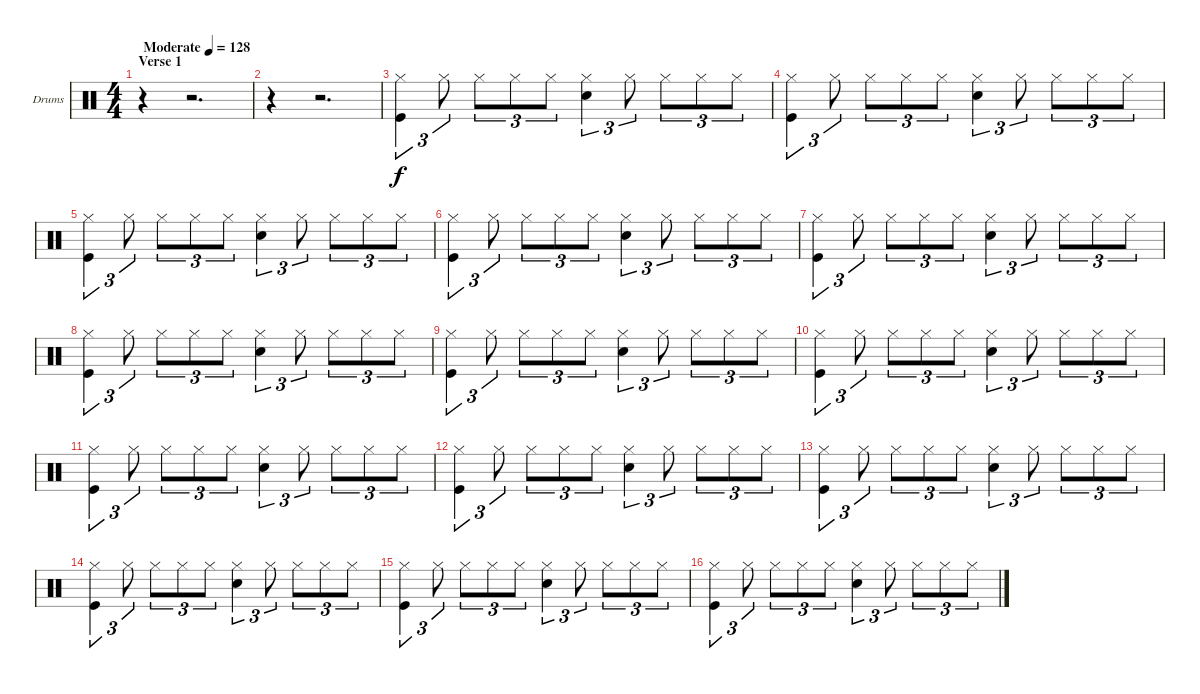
\bracketExtendMode groupsimilarinstruments
\firstSystemTrackNameOrientation horizontal
\otherSystemsTrackNameOrientation horizontal
\track ("Drumkit" "Drums") {instrument percussion}
\staff {score}
\articulation defaults
\ts (4 4)
\beaming (8 2 2 2 2)
\section ("" "Verse 1")
\tempo (128 "Moderate")
\clef neutral
\ks c
r.4{dy f} r.2{d} |
r.4 r.2{d} |
("Hi-Hat (closed)" "Kick (hit)").4{tu (3 2)} "Hi-Hat (closed)".8{tu (3 2)} "Hi-Hat (closed)".8{tu (3 2)} "Hi-Hat (closed)".8{tu (3 2)} "Hi-Hat (closed)".8{tu (3 2)} ("Hi-Hat (closed)" "Snare (hit) 2").4{tu (3 2)} "Hi-Hat (closed)".8{tu (3 2)} "Hi-Hat (closed)".8{tu (3 2)} "Hi-Hat (closed)".8{tu (3 2)} "Hi-Hat (closed)".8{tu (3 2)} |
("Hi-Hat (closed)" "Kick (hit)").4{tu (3 2)} "Hi-Hat (closed)".8{tu (3 2)} "Hi-Hat (closed)".8{tu (3 2)} "Hi-Hat (closed)".8{tu (3 2)} "Hi-Hat (closed)".8{tu (3 2)} ("Hi-Hat (closed)" "Snare (hit) 2").4{tu (3 2)} "Hi-Hat (closed)".8{tu (3 2)} "Hi-Hat (closed)".8{tu (3 2)} "Hi-Hat (closed)".8{tu (3 2)} "Hi-Hat (closed)".8{tu (3 2)} |
("Hi-Hat (closed)" "Kick (hit)").4{tu (3 2)} "Hi-Hat (closed)".8{tu (3 2)} "Hi-Hat (closed)".8{tu (3 2)} "Hi-Hat (closed)".8{tu (3 2)} "Hi-Hat (closed)".8{tu (3 2)} ("Hi-Hat (closed)" "Snare (hit) 2").4{tu (3 2)} "Hi-Hat (closed)".8{tu (3 2)} "Hi-Hat (closed)".8{tu (3 2)} "Hi-Hat (closed)".8{tu (3 2)} "Hi-Hat (closed)".8{tu (3 2)} |
("Hi-Hat (closed)" "Kick (hit)").4{tu (3 2)} "Hi-Hat (closed)".8{tu (3 2)} "Hi-Hat (closed)".8{tu (3 2)} "Hi-Hat (closed)".8{tu (3 2)} "Hi-Hat (closed)".8{tu (3 2)} ("Hi-Hat (closed)" "Snare (hit) 2").4{tu (3 2)} "Hi-Hat (closed)".8{tu (3 2)} "Hi-Hat (closed)".8{tu (3 2)} "Hi-Hat (closed)".8{tu (3 2)} "Hi-Hat (closed)".8{tu (3 2)} |
("Hi-Hat (closed)" "Kick (hit)").4{tu (3 2)} "Hi-Hat (closed)".8{tu (3 2)} "Hi-Hat (closed)".8{tu (3 2)} "Hi-Hat (closed)".8{tu (3 2)} "Hi-Hat (closed)".8{tu (3 2)} ("Hi-Hat (closed)" "Snare (hit) 2").4{tu (3 2)} "Hi-Hat (closed)".8{tu (3 2)} "Hi-Hat (closed)".8{tu (3 2)} "Hi-Hat (closed)".8{tu (3 2)} "Hi-Hat (closed)".8{tu (3 2)} |
("Hi-Hat (closed)" "Kick (hit)").4{tu (3 2)} "Hi-Hat (closed)".8{tu (3 2)} "Hi-Hat (closed)".8{tu (3 2)} "Hi-Hat (closed)".8{tu (3 2)} "Hi-Hat (closed)".8{tu (3 2)} ("Hi-Hat (closed)" "Snare (hit) 2").4{tu (3 2)} "Hi-Hat (closed)".8{tu (3 2)} "Hi-Hat (closed)".8{tu (3 2)} "Hi-Hat (closed)".8{tu (3 2)} "Hi-Hat (closed)".8{tu (3 2)} |
("Hi-Hat (closed)" "Kick (hit)").4{tu (3 2)} "Hi-Hat (closed)".8{tu (3 2)} "Hi-Hat (closed)".8{tu (3 2)} "Hi-Hat (closed)".8{tu (3 2)} "Hi-Hat (closed)".8{tu (3 2)} ("Hi-Hat (closed)" "Snare (hit) 2").4{tu (3 2)} "Hi-Hat (closed)".8{tu (3 2)} "Hi-Hat (closed)".8{tu (3 2)} "Hi-Hat (closed)".8{tu (3 2)} "Hi-Hat (closed)".8{tu (3 2)} |
("Hi-Hat (closed)" "Kick (hit)").4{tu (3 2)} "Hi-Hat (closed)".8{tu (3 2)} "Hi-Hat (closed)".8{tu (3 2)} "Hi-Hat (closed)".8{tu (3 2)} "Hi-Hat (closed)".8{tu (3 2)} ("Hi-Hat (closed)" "Snare (hit) 2").4{tu (3 2)} "Hi-Hat (closed)".8{tu (3 2)} "Hi-Hat (closed)".8{tu (3 2)} "Hi-Hat (closed)".8{tu (3 2)} "Hi-Hat (closed)".8{tu (3 2)} |
("Hi-Hat (closed)" "Kick (hit)").4{tu (3 2)} "Hi-Hat (closed)".8{tu (3 2)} "Hi-Hat (closed)".8{tu (3 2)} "Hi-Hat (closed)".8{tu (3 2)} "Hi-Hat (closed)".8{tu (3 2)} ("Hi-Hat (closed)" "Snare (hit) 2").4{tu (3 2)} "Hi-Hat (closed)".8{tu (3 2)} "Hi-Hat (closed)".8{tu (3 2)} "Hi-Hat (closed)".8{tu (3 2)} "Hi-Hat (closed)".8{tu (3 2)} |
("Hi-Hat (closed)" "Kick (hit)").4{tu (3 2)} "Hi-Hat (closed)".8{tu (3 2)} "Hi-Hat (closed)".8{tu (3 2)} "Hi-Hat (closed)".8{tu (3 2)} "Hi-Hat (closed)".8{tu (3 2)} ("Hi-Hat (closed)" "Snare (hit) 2").4{tu (3 2)} "Hi-Hat (closed)".8{tu (3 2)} "Hi-Hat (closed)".8{tu (3 2)} "Hi-Hat (closed)".8{tu (3 2)} "Hi-Hat (closed)".8{tu (3 2)} |
("Hi-Hat (closed)" "Kick (hit)").4{tu (3 2)} "Hi-Hat (closed)".8{tu (3 2)} "Hi-Hat (closed)".8{tu (3 2)} "Hi-Hat (closed)".8{tu (3 2)} "Hi-Hat (closed)".8{tu (3 2)} ("Hi-Hat (closed)" "Snare (hit) 2").4{tu (3 2)} "Hi-Hat (closed)".8{tu (3 2)} "Hi-Hat (closed)".8{tu (3 2)} "Hi-Hat (closed)".8{tu (3 2)} "Hi-Hat (closed)".8{tu (3 2)} |
("Hi-Hat (closed)" "Kick (hit)").4{tu (3 2)} "Hi-Hat (closed)".8{tu (3 2)} "Hi-Hat (closed)".8{tu (3 2)} "Hi-Hat (closed)".8{tu (3 2)} "Hi-Hat (closed)".8{tu (3 2)} ("Hi-Hat (closed)" "Snare (hit) 2").4{tu (3 2)} "Hi-Hat (closed)".8{tu (3 2)} "Hi-Hat (closed)".8{tu (3 2)} "Hi-Hat (closed)".8{tu (3 2)} "Hi-Hat (closed)".8{tu (3 2)} |
("Hi-Hat (closed)" "Kick (hit)").4{tu (3 2)} "Hi-Hat (closed)".8{tu (3 2)} "Hi-Hat (closed)".8{tu (3 2)} "Hi-Hat (closed)".8{tu (3 2)} "Hi-Hat (closed)".8{tu (3 2)} ("Hi-Hat (closed)" "Snare (hit) 2").4{tu (3 2)} "Hi-Hat (closed)".8{tu (3 2)} "Hi-Hat (closed)".8{tu (3 2)} "Hi-Hat (closed)".8{tu (3 2)} "Hi-Hat (closed)".8{tu (3 2)} |
("Hi-Hat (closed)" "Kick (hit)").4{tu (3 2)} "Hi-Hat (closed)".8{tu (3 2)} "Hi-Hat (closed)".8{tu (3 2)} "Hi-Hat (closed)".8{tu (3 2)} "Hi-Hat (closed)".8{tu (3 2)} ("Hi-Hat (closed)" "Snare (hit) 2").4{tu (3 2)} "Hi-Hat (closed)".8{tu (3 2)} "Hi-Hat (closed)".8{tu (3 2)} "Hi-Hat (closed)".8{tu (3 2)} "Hi-Hat (closed)".8{tu (3 2)}
